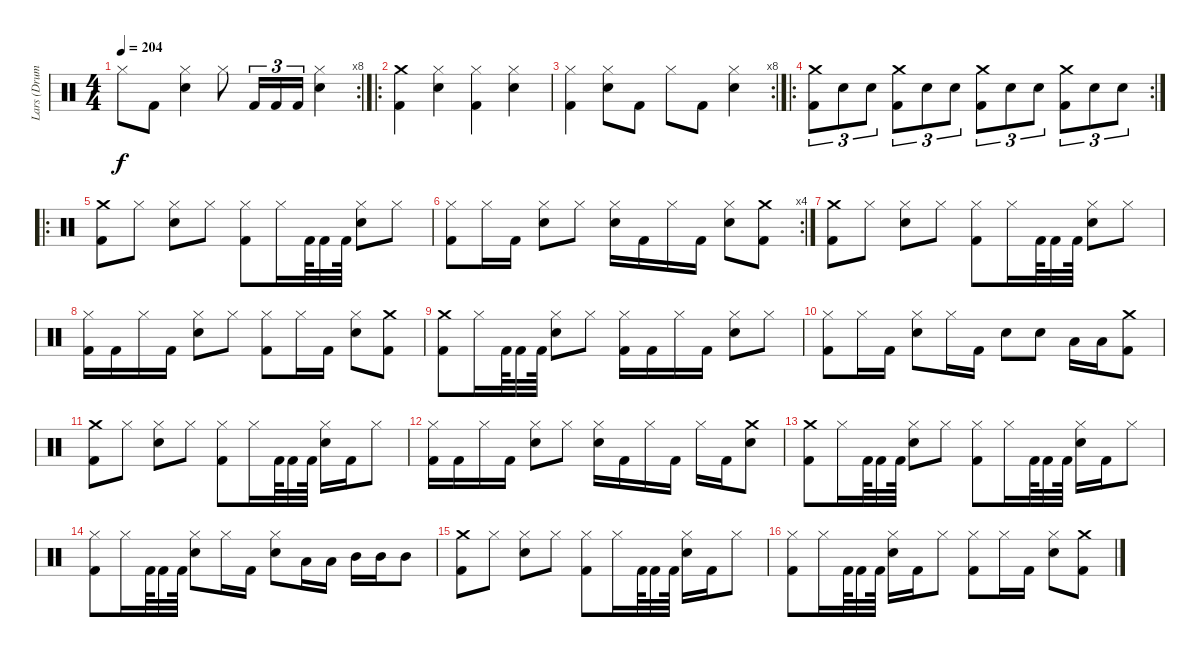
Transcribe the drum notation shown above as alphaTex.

\track ("Lars (Drums)" "Lars (Drum") {instrument percussion}
\staff {score}
\articulation defaults
\rc 8
\ts (4 4)
\tempo 204
\clef neutral
\ks c "Hi-Hat (closed)".8{dy f} "Kick (hit) 2".8
("Snare (hit) 2" "Hi-Hat (closed)").4 "Hi-Hat (closed)".8 "Kick (hit) 2".16{tu (3 2)} "Kick (hit) 2".16{tu (3 2)} "Kick (hit) 2".16{tu (3 2)} ("Snare (hit) 2" "Hi-Hat (closed)").4 |
\ro
("Kick (hit) 2" "Crash medium (hit)").4 ("Hi-Hat (closed)" "Snare (hit) 2").4 ("Hi-Hat (closed)" "Kick (hit) 2").4 ("Snare (hit) 2" "Hi-Hat (closed)").4 |
\rc 8
("Hi-Hat (closed)" "Kick (hit) 2").4 ("Snare (hit) 2" "Hi-Hat (closed)").8 "Kick (hit) 2".8 "Hi-Hat (closed)".8 "Kick (hit) 2".8 ("Snare (hit) 2" "Hi-Hat (closed)").4 |
\ro
\rc 2
("Kick (hit) 2" "Crash medium (hit)").8{tu (3 2)} "Snare (hit) 2".8{tu (3 2)} "Snare (hit) 2".8{tu (3 2)} ("Kick (hit) 2" "Crash medium (hit)").8{tu (3 2)} "Snare (hit) 2".8{tu (3 2)} "Snare (hit) 2".8{tu (3 2)} ("Kick (hit) 2" "Crash medium (hit)").8{tu (3 2)} "Snare (hit) 2".8{tu (3 2)} "Snare (hit) 2".8{tu (3 2)} ("Kick (hit) 2" "Crash medium (hit)").8{tu (3 2)} "Snare (hit) 2".8{tu (3 2)} "Snare (hit) 2".8{tu (3 2)} |
\ro
("Crash medium (hit)" "Kick (hit) 2").8 "Hi-Hat (closed)".8 ("Snare (hit) 2" "Hi-Hat (closed)").8 "Hi-Hat (closed)".8 ("Hi-Hat (closed)" "Kick (hit) 2").8 "Hi-Hat (closed)".16 "Kick (hit) 2".64 "Kick (hit) 2".32 "Kick (hit) 2".64 ("Snare (hit) 2" "Hi-Hat (closed)").8 "Hi-Hat (closed)".8 |
\rc 4
("Hi-Hat (closed)" "Kick (hit) 2").8 "Hi-Hat (closed)".16 "Kick (hit) 2".16 ("Snare (hit) 2" "Hi-Hat (closed)").8 "Hi-Hat (closed)".8 ("Snare (hit) 2" "Hi-Hat (closed)").16 "Kick (hit) 2".16 "Hi-Hat (closed)".16 "Kick (hit) 2".16 ("Snare (hit) 2" "Hi-Hat (closed)").8 ("Crash medium (hit)" "Kick (hit) 2").8 |
("Kick (hit) 2" "Crash medium (hit)").8 "Hi-Hat (closed)".8 ("Snare (hit) 2" "Hi-Hat (closed)").8 "Hi-Hat (closed)".8 ("Hi-Hat (closed)" "Kick (hit) 2").8 "Hi-Hat (closed)".16 "Kick (hit) 2".64 "Kick (hit) 2".32 "Kick (hit) 2".64 ("Snare (hit) 2" "Hi-Hat (closed)").8 "Hi-Hat (closed)".8 |
("Kick (hit) 2" "Hi-Hat (closed)").16 "Kick (hit) 2".16 "Hi-Hat (closed)".16 "Kick (hit) 2".16 ("Snare (hit) 2" "Hi-Hat (closed)").8 "Hi-Hat (closed)".8 ("Kick (hit) 2" "Hi-Hat (closed)").8 "Hi-Hat (closed)".16 "Kick (hit) 2".16 ("Snare (hit) 2" "Hi-Hat (closed)").8 ("Kick (hit) 2" "Crash medium (hit)").8 |
("Crash medium (hit)" "Kick (hit) 2").8 "Hi-Hat (closed)".16 "Kick (hit) 2".64 "Kick (hit) 2".32 "Kick (hit) 2".64 ("Snare (hit) 2" "Hi-Hat (closed)").8 "Hi-Hat (closed)".8 ("Kick (hit) 2" "Hi-Hat (closed)").16 "Kick (hit) 2".16 "Hi-Hat (closed)".16 "Kick (hit) 2".16 ("Snare (hit) 2" "Hi-Hat (closed)").8 "Hi-Hat (closed)".8 |
("Kick (hit) 2" "Hi-Hat (closed)").8 "Hi-Hat (closed)".16 "Kick (hit) 2".16 ("Snare (hit) 2" "Hi-Hat (closed)").8 "Hi-Hat (closed)".16 "Kick (hit) 2".16 "Snare (hit) 2".8 "Snare (hit) 2".8 "Low Tom (hit)".16 "Low Tom (hit)".16 ("Crash medium (hit)" "Kick (hit) 2").8 |
("Crash medium (hit)" "Kick (hit) 2").8 "Hi-Hat (closed)".8 ("Snare (hit) 2" "Hi-Hat (closed)").8 "Hi-Hat (closed)".8 ("Hi-Hat (closed)" "Kick (hit) 2").8 "Hi-Hat (closed)".16 "Kick (hit) 2".64 "Kick (hit) 2".32 "Kick (hit) 2".64 ("Snare (hit) 2" "Hi-Hat (closed)").16 "Kick (hit) 2".16 "Hi-Hat (closed)".8 |
("Kick (hit) 2" "Hi-Hat (closed)").16 "Kick (hit) 2".16 "Hi-Hat (closed)".16 "Kick (hit) 2".16 ("Snare (hit) 2" "Hi-Hat (closed)").8 "Hi-Hat (closed)".8 ("Hi-Hat (closed)" "Snare (hit) 2").16 "Kick (hit) 2".16 "Hi-Hat (closed)".16 "Kick (hit) 2".16 "Hi-Hat (closed)".16 "Kick (hit) 2".16 ("Crash medium (hit)" "Snare (hit) 2").8 |
("Crash medium (hit)" "Kick (hit) 2").8 "Hi-Hat (closed)".16 "Kick (hit) 2".64 "Kick (hit) 2".32 "Kick (hit) 2".64 ("Snare (hit) 2" "Hi-Hat (closed)").8 "Hi-Hat (closed)".8 ("Hi-Hat (closed)" "Kick (hit) 2").8 "Hi-Hat (closed)".16 "Kick (hit) 2".64 "Kick (hit) 2".32 "Kick (hit) 2".64 ("Snare (hit) 2" "Hi-Hat (closed)").16 "Kick (hit) 2".16 "Hi-Hat (closed)".8 |
("Hi-Hat (closed)" "Kick (hit) 2").8 "Hi-Hat (closed)".16 "Kick (hit) 2".64 "Kick (hit) 2".32 "Kick (hit) 2".64 ("Snare (hit) 2" "Hi-Hat (closed)").8 "Hi-Hat (closed)".16 "Kick (hit) 2".16 ("Snare (hit) 2" "Hi-Hat (closed)").8 "Low Tom (hit)".16 "Low Tom (hit)".16 "Mid Tom (hit)".16 "Mid Tom (hit)".16 "Mid Tom (hit)".8 |
("Crash medium (hit)" "Kick (hit) 2").8 "Hi-Hat (closed)".8 ("Snare (hit) 2" "Hi-Hat (closed)").8 "Hi-Hat (closed)".8 ("Hi-Hat (closed)" "Kick (hit) 2").8 "Hi-Hat (closed)".16 "Kick (hit) 2".64 "Kick (hit) 2".32 "Kick (hit) 2".64 ("Snare (hit) 2" "Hi-Hat (closed)").16 "Kick (hit) 2".16 "Hi-Hat (closed)".8 |
("Hi-Hat (closed)" "Kick (hit) 2").8 "Hi-Hat (closed)".16 "Kick (hit) 2".64 "Kick (hit) 2".32 "Kick (hit) 2".64 ("Snare (hit) 2" "Hi-Hat (closed)").16 "Kick (hit) 2".16 "Hi-Hat (closed)".8 ("Hi-Hat (closed)" "Kick (hit) 2").8 "Hi-Hat (closed)".16 "Kick (hit) 2".16 ("Snare (hit) 2" "Hi-Hat (closed)").8 ("Crash medium (hit)" "Kick (hit) 2").8
